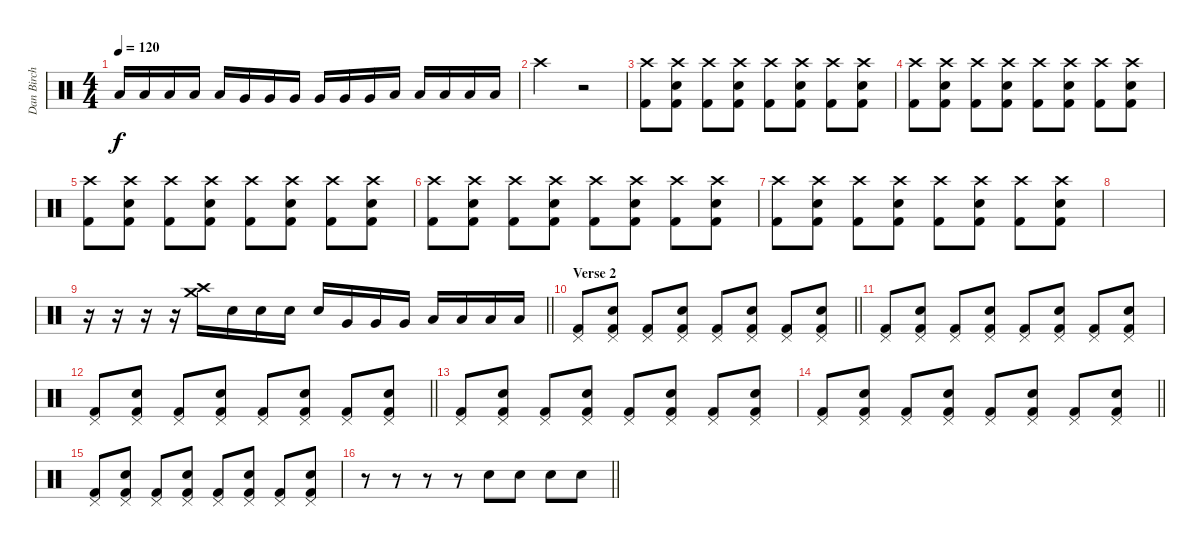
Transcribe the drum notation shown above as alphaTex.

\track ("Dan Birch" "Dan Birch") {instrument percussion}
\staff {score}
\articulation defaults
\ts (4 4)
\tempo 120
\clef neutral
\ks c "Low Tom (hit)".16{dy f} "Low Tom (hit)".16 "Low Tom (hit)".16 "Low Tom (hit)".16 "Low Tom (hit)".16 "Very Low Tom (hit)".16 "Very Low Tom (hit)".16 "Very Low Tom (hit)".16 "Very Low Tom (hit)".16 "Very Low Tom (hit)".16 "Very Low Tom (hit)".16 "Low Floor Tom (hit)".16 "Low Floor Tom (hit)".16 "Low Floor Tom (hit)".16 "Low Floor Tom (hit)".16 "Low Floor Tom (hit)".16
|
"Crash high (hit)".2 r.2 |
("Crash high (hit)" "Kick (hit) 2").8 ("Crash high (hit)" "Snare (hit) 2" "Kick (hit) 2").8 ("Crash high (hit)" "Kick (hit) 2").8 ("Crash high (hit)" "Snare (hit) 2" "Kick (hit) 2").8 ("Crash high (hit)" "Kick (hit) 2").8 ("Crash high (hit)" "Snare (hit) 2" "Kick (hit) 2").8 ("Crash high (hit)" "Kick (hit) 2").8 ("Crash high (hit)" "Snare (hit) 2" "Kick (hit) 2").8 |
("Crash high (hit)" "Kick (hit) 2").8 ("Crash high (hit)" "Snare (hit) 2" "Kick (hit) 2").8 ("Crash high (hit)" "Kick (hit) 2").8 ("Crash high (hit)" "Snare (hit) 2" "Kick (hit) 2").8 ("Crash high (hit)" "Kick (hit) 2").8 ("Crash high (hit)" "Snare (hit) 2" "Kick (hit) 2").8 ("Crash high (hit)" "Kick (hit) 2").8 ("Crash high (hit)" "Snare (hit) 2" "Kick (hit) 2").8 |
("Crash high (hit)" "Kick (hit) 2").8 ("Crash high (hit)" "Snare (hit) 2" "Kick (hit) 2").8 ("Crash high (hit)" "Kick (hit) 2").8 ("Crash high (hit)" "Snare (hit) 2" "Kick (hit) 2").8 ("Crash high (hit)" "Kick (hit) 2").8 ("Crash high (hit)" "Snare (hit) 2" "Kick (hit) 2").8 ("Crash high (hit)" "Kick (hit) 2").8 ("Crash high (hit)" "Snare (hit) 2" "Kick (hit) 2").8 |
("Crash high (hit)" "Kick (hit) 2").8 ("Crash high (hit)" "Snare (hit) 2" "Kick (hit) 2").8 ("Crash high (hit)" "Kick (hit) 2").8 ("Crash high (hit)" "Snare (hit) 2" "Kick (hit) 2").8 ("Crash high (hit)" "Kick (hit) 2").8 ("Crash high (hit)" "Snare (hit) 2" "Kick (hit) 2").8 ("Crash high (hit)" "Kick (hit) 2").8 ("Crash high (hit)" "Snare (hit) 2" "Kick (hit) 2").8 |
("Crash high (hit)" "Kick (hit) 2").8 ("Crash high (hit)" "Snare (hit) 2" "Kick (hit) 2").8 ("Crash high (hit)" "Kick (hit) 2").8 ("Crash high (hit)" "Snare (hit) 2" "Kick (hit) 2").8 ("Crash high (hit)" "Kick (hit) 2").8 ("Crash high (hit)" "Snare (hit) 2" "Kick (hit) 2").8 ("Crash high (hit)" "Kick (hit) 2").8 ("Crash high (hit)" "Snare (hit) 2" "Kick (hit) 2").8 |
|
\barLineRight lightlight
r.16 r.16 r.16 r.16 ("Crash high (hit)" "Crash medium (hit)").16 "Snare (hit) 2".16 "Snare (hit) 2".16 "Snare (hit) 2".16 "Snare (hit) 2".16 "Very Low Tom (hit)".16 "Very Low Tom (hit)".16 "Very Low Tom (hit)".16 "Low Tom (hit)".16 "Low Tom (hit)".16 "Low Tom (hit)".16 "Low Floor Tom (hit)".16 |
\section ("" "Verse 2")
\barLineRight lightlight
("Pedal Hi-Hat (hit)" "Kick (hit) 2").8 ("Pedal Hi-Hat (hit)" "Snare (hit) 2" "Kick (hit) 2").8 ("Pedal Hi-Hat (hit)" "Kick (hit) 2").8 ("Pedal Hi-Hat (hit)" "Snare (hit) 2" "Kick (hit) 2").8 ("Pedal Hi-Hat (hit)" "Kick (hit) 2").8 ("Pedal Hi-Hat (hit)" "Snare (hit) 2" "Kick (hit) 2").8 ("Pedal Hi-Hat (hit)" "Kick (hit) 2").8 ("Pedal Hi-Hat (hit)" "Snare (hit) 2" "Kick (hit) 2").8 |
("Pedal Hi-Hat (hit)" "Kick (hit) 2").8 ("Pedal Hi-Hat (hit)" "Snare (hit) 2" "Kick (hit) 2").8 ("Pedal Hi-Hat (hit)" "Kick (hit) 2").8 ("Pedal Hi-Hat (hit)" "Snare (hit) 2" "Kick (hit) 2").8 ("Pedal Hi-Hat (hit)" "Kick (hit) 2").8 ("Pedal Hi-Hat (hit)" "Snare (hit) 2" "Kick (hit) 2").8 ("Pedal Hi-Hat (hit)" "Kick (hit) 2").8 ("Pedal Hi-Hat (hit)" "Snare (hit) 2" "Kick (hit) 2").8 |
\barLineRight lightlight
("Pedal Hi-Hat (hit)" "Kick (hit) 2").8 ("Pedal Hi-Hat (hit)" "Snare (hit) 2" "Kick (hit) 2").8 ("Pedal Hi-Hat (hit)" "Kick (hit) 2").8 ("Pedal Hi-Hat (hit)" "Snare (hit) 2" "Kick (hit) 2").8 ("Pedal Hi-Hat (hit)" "Kick (hit) 2").8 ("Pedal Hi-Hat (hit)" "Snare (hit) 2" "Kick (hit) 2").8 ("Pedal Hi-Hat (hit)" "Kick (hit) 2").8 ("Pedal Hi-Hat (hit)" "Snare (hit) 2" "Kick (hit) 2").8 |
("Pedal Hi-Hat (hit)" "Kick (hit) 2").8 ("Pedal Hi-Hat (hit)" "Snare (hit) 2" "Kick (hit) 2").8 ("Pedal Hi-Hat (hit)" "Kick (hit) 2").8 ("Pedal Hi-Hat (hit)" "Snare (hit) 2" "Kick (hit) 2").8 ("Pedal Hi-Hat (hit)" "Kick (hit) 2").8 ("Pedal Hi-Hat (hit)" "Snare (hit) 2" "Kick (hit) 2").8 ("Pedal Hi-Hat (hit)" "Kick (hit) 2").8 ("Pedal Hi-Hat (hit)" "Snare (hit) 2" "Kick (hit) 2").8 |
\barLineRight lightlight
("Pedal Hi-Hat (hit)" "Kick (hit) 2").8 ("Pedal Hi-Hat (hit)" "Snare (hit) 2" "Kick (hit) 2").8 ("Pedal Hi-Hat (hit)" "Kick (hit) 2").8 ("Pedal Hi-Hat (hit)" "Snare (hit) 2" "Kick (hit) 2").8 ("Pedal Hi-Hat (hit)" "Kick (hit) 2").8 ("Pedal Hi-Hat (hit)" "Snare (hit) 2" "Kick (hit) 2").8 ("Pedal Hi-Hat (hit)" "Kick (hit) 2").8 ("Pedal Hi-Hat (hit)" "Snare (hit) 2" "Kick (hit) 2").8 |
("Pedal Hi-Hat (hit)" "Kick (hit) 2").8 ("Pedal Hi-Hat (hit)" "Snare (hit) 2" "Kick (hit) 2").8 ("Pedal Hi-Hat (hit)" "Kick (hit) 2").8 ("Pedal Hi-Hat (hit)" "Snare (hit) 2" "Kick (hit) 2").8 ("Pedal Hi-Hat (hit)" "Kick (hit) 2").8 ("Pedal Hi-Hat (hit)" "Snare (hit) 2" "Kick (hit) 2").8 ("Pedal Hi-Hat (hit)" "Kick (hit) 2").8 ("Pedal Hi-Hat (hit)" "Snare (hit) 2" "Kick (hit) 2").8 |
\barLineRight lightlight
r.8 r.8 r.8 r.8 "Snare (hit) 2".8 "Snare (hit) 2".8 "Snare (hit) 2".8 "Snare (hit) 2".8
